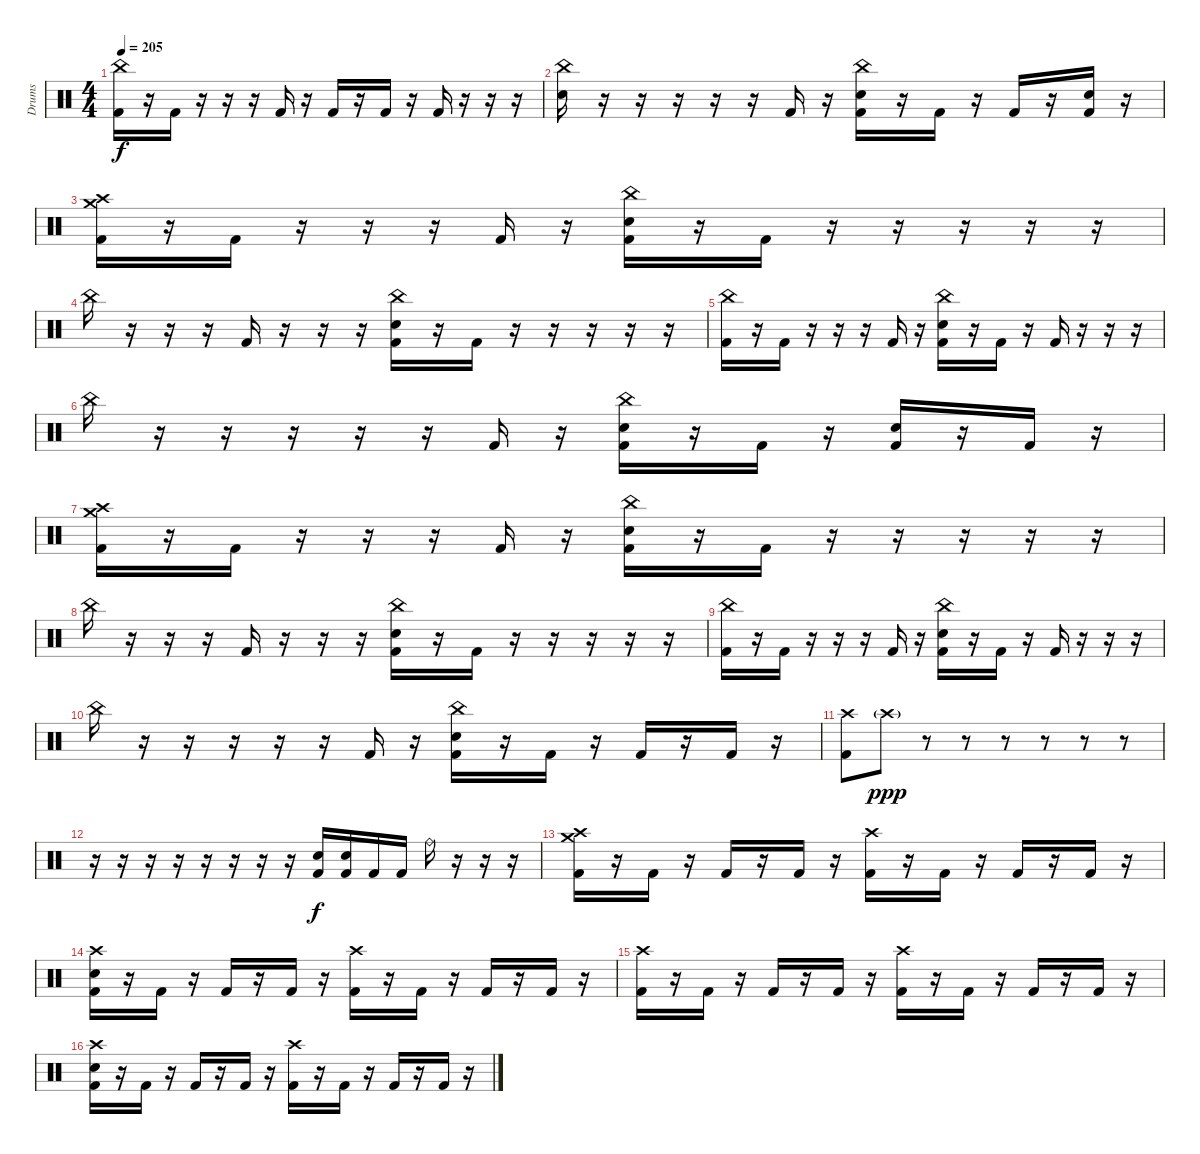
\track ("Drums" "Drums") {instrument percussion}
\staff {score}
\articulation defaults
\ts (4 4)
\tempo 205
\clef neutral
\ks c
("China (hit)" "Kick (hit) 2").16{dy f} r.16 "Kick (hit) 2".16 r.16 r.16 r.16 "Kick (hit) 2".16 r.16 "Kick (hit) 2".16 r.16 "Kick (hit) 2".16 r.16 "Kick (hit) 2".16 r.16 r.16 r.16 |
("China (hit)" "Electric Snare (hit)").16 r.16 r.16 r.16 r.16 r.16 "Kick (hit) 2".16 r.16 ("China (hit)" "Electric Snare (hit)" "Kick (hit) 2").16 r.16 "Kick (hit) 2".16 r.16 "Kick (hit) 2".16 r.16 ("Electric Snare (hit)" "Kick (hit) 2").16 r.16 |
("Crash high (hit)" "Crash medium (hit)" "Kick (hit) 2").16 r.16 "Kick (hit) 2".16 r.16 r.16 r.16 "Kick (hit) 2".16 r.16 ("China (hit)" "Electric Snare (hit)" "Kick (hit) 2").16 r.16 "Kick (hit) 2".16 r.16 r.16 r.16 r.16 r.16 |
"China (hit)".16 r.16 r.16 r.16 "Kick (hit) 2".16 r.16 r.16 r.16 ("China (hit)" "Electric Snare (hit)" "Kick (hit) 2").16 r.16 "Kick (hit) 2".16 r.16 r.16 r.16 r.16 r.16 |
("China (hit)" "Kick (hit) 2").16 r.16 "Kick (hit) 2".16 r.16 r.16 r.16 "Kick (hit) 2".16 r.16 ("China (hit)" "Electric Snare (hit)" "Kick (hit) 2").16 r.16 "Kick (hit) 2".16 r.16 "Kick (hit) 2".16 r.16 r.16 r.16 |
"China (hit)".16 r.16 r.16 r.16 r.16 r.16 "Kick (hit) 2".16 r.16 ("China (hit)" "Electric Snare (hit)" "Kick (hit) 2").16 r.16 "Kick (hit) 2".16 r.16 ("Electric Snare (hit)" "Kick (hit) 2").16 r.16 "Kick (hit) 2".16 r.16 |
("Crash high (hit)" "Crash medium (hit)" "Kick (hit) 2").16 r.16 "Kick (hit) 2".16 r.16 r.16 r.16 "Kick (hit) 2".16 r.16 ("China (hit)" "Electric Snare (hit)" "Kick (hit) 2").16 r.16 "Kick (hit) 2".16 r.16 r.16 r.16 r.16 r.16 |
"China (hit)".16 r.16 r.16 r.16 "Kick (hit) 2".16 r.16 r.16 r.16 ("China (hit)" "Electric Snare (hit)" "Kick (hit) 2").16 r.16 "Kick (hit) 2".16 r.16 r.16 r.16 r.16 r.16 |
("China (hit)" "Kick (hit) 2").16 r.16 "Kick (hit) 2".16 r.16 r.16 r.16 "Kick (hit) 2".16 r.16 ("China (hit)" "Electric Snare (hit)" "Kick (hit) 2").16 r.16 "Kick (hit) 2".16 r.16 "Kick (hit) 2".16 r.16 r.16 r.16 |
"China (hit)".16 r.16 r.16 r.16 r.16 r.16 "Kick (hit) 2".16 r.16 ("China (hit)" "Electric Snare (hit)" "Kick (hit) 2").16 r.16 "Kick (hit) 2".16 r.16 "Kick (hit) 2".16 r.16 "Kick (hit) 2".16 r.16 |
("Crash high (hit)" "Kick (hit) 2").8 "Crash high (hit)"{g}.8{dy ppp beam merge} r.8{beam merge} r.8{beam merge} r.8{beam merge} r.8{beam merge} r.8{beam merge} r.8 |
r.16 r.16 r.16 r.16 r.16 r.16 r.16 r.16 ("Electric Snare (hit)" "Kick (hit) 2").16{dy f} ("Electric Snare (hit)" "Kick (hit) 2").16 "Kick (hit) 2".16 "Kick (hit) 2".16 "Ride (bell)".16 r.16 r.16 r.16 |
("Crash high (hit)" "Crash medium (hit)" "Kick (hit) 2").16 r.16 "Kick (hit) 2".16 r.16 "Kick (hit) 2".16 r.16 "Kick (hit) 2".16 r.16 ("Crash high (hit)" "Kick (hit) 2").16 r.16 "Kick (hit) 2".16 r.16 "Kick (hit) 2".16 r.16 "Kick (hit) 2".16 r.16 |
("Crash high (hit)" "Electric Snare (hit)" "Kick (hit) 2").16 r.16 "Kick (hit) 2".16 r.16 "Kick (hit) 2".16 r.16 "Kick (hit) 2".16 r.16 ("Crash high (hit)" "Kick (hit) 2").16 r.16 "Kick (hit) 2".16 r.16 "Kick (hit) 2".16 r.16 "Kick (hit) 2".16 r.16 |
("Crash high (hit)" "Kick (hit) 2").16 r.16 "Kick (hit) 2".16 r.16 "Kick (hit) 2".16 r.16 "Kick (hit) 2".16 r.16 ("Crash high (hit)" "Kick (hit) 2").16 r.16 "Kick (hit) 2".16 r.16 "Kick (hit) 2".16 r.16 "Kick (hit) 2".16 r.16 |
("Crash high (hit)" "Electric Snare (hit)" "Kick (hit) 2").16 r.16 "Kick (hit) 2".16 r.16 "Kick (hit) 2".16 r.16 "Kick (hit) 2".16 r.16 ("Crash high (hit)" "Kick (hit) 2").16 r.16 "Kick (hit) 2".16 r.16 "Kick (hit) 2".16 r.16 "Kick (hit) 2".16 r.16
